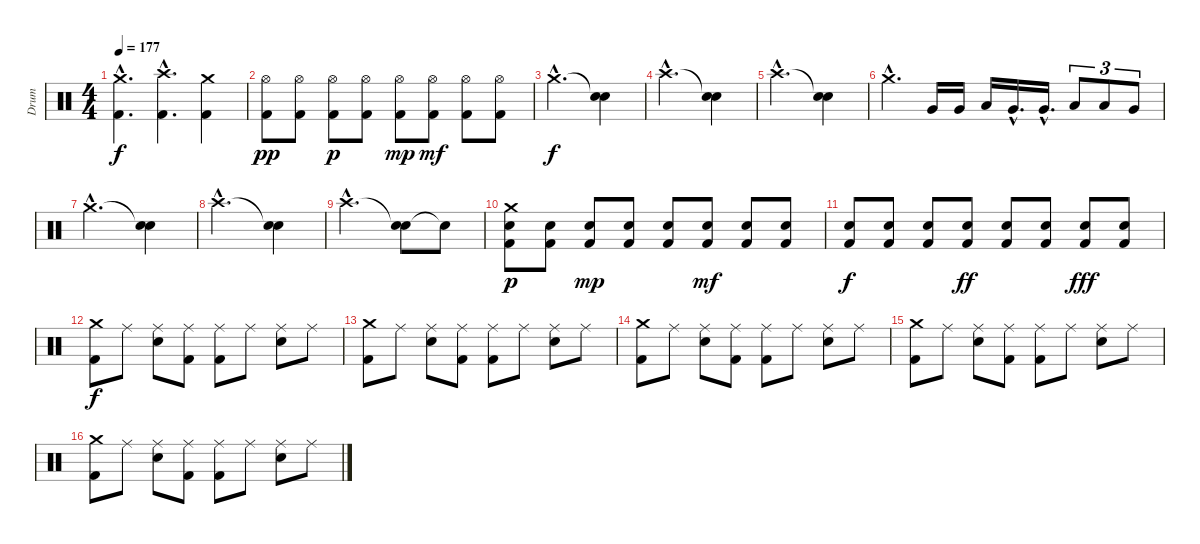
\track ("Drum" "Drum") {instrument percussion}
\staff {score}
\articulation defaults
\ts (4 4)
\tempo 177
\clef neutral
\ks c
("Crash medium (hit)"{hac} "Kick (hit) 2"{hac}).4{d dy f} ("Crash high (hit)"{hac} "Kick (hit) 2"{hac}).4{d} ("Crash medium (hit)" "Kick (hit) 2").4 |
("Hi-Hat (open)" "Kick (hit) 2").8{dy pp} ("Hi-Hat (open)" "Kick (hit) 2").8 ("Hi-Hat (open)" "Kick (hit) 2").8{dy p} ("Hi-Hat (open)" "Kick (hit) 2").8 ("Hi-Hat (open)" "Kick (hit) 2").8{dy mp} ("Hi-Hat (open)" "Kick (hit) 2").8{dy mf} ("Hi-Hat (open)" "Kick (hit) 2").8 ("Hi-Hat (open)" "Kick (hit) 2").8 |
"Crash medium (hit)"{hac}.2{d dy f} ("Snare (hit)"{t} "Electric Snare (hit)").4 |
"Crash high (hit)"{hac}.2{d} ("Snare (hit)"{t} "Electric Snare (hit)").4 |
"Crash high (hit)"{hac}.2{d} ("Snare (hit)"{t} "Electric Snare (hit)").4 |
"Crash medium (hit)"{hac}.4{d} "Very Low Tom (hit)".16 "Very Low Tom (hit)".16 "Low Tom (hit)".16 "Very Low Tom (hit)"{hac}.16{d} "Very Low Tom (hit)"{hac}.16{d} "Low Tom (hit)".8{tu (3 2)} "Low Tom (hit)".8{tu (3 2)} "Very Low Tom (hit)".8{tu (3 2)} |
"Crash medium (hit)"{hac}.2{d} ("Snare (hit)"{t} "Electric Snare (hit)").4 |
"Crash high (hit)"{hac}.2{d} ("Snare (hit)"{t} "Electric Snare (hit)").4 |
"Crash high (hit)"{hac}.2{d} ("Snare (hit)"{t} "Electric Snare (hit)").8 "Snare (hit)"{t}.8 |
("Crash medium (hit)" "Electric Snare (hit)" "Kick (hit) 2").8{dy p volume 16} ("Electric Snare (hit)" "Kick (hit) 2").8 ("Electric Snare (hit)" "Kick (hit) 2").8{dy mp} ("Electric Snare (hit)" "Kick (hit) 2").8 ("Electric Snare (hit)" "Kick (hit) 2").8 ("Electric Snare (hit)" "Kick (hit) 2").8{dy mf} ("Electric Snare (hit)" "Kick (hit) 2").8 ("Electric Snare (hit)" "Kick (hit) 2").8 |
("Electric Snare (hit)" "Kick (hit) 2").8{dy f} ("Electric Snare (hit)" "Kick (hit) 2").8 ("Electric Snare (hit)" "Kick (hit) 2").8 ("Electric Snare (hit)" "Kick (hit) 2").8{dy ff} ("Electric Snare (hit)" "Kick (hit) 2").8 ("Electric Snare (hit)" "Kick (hit) 2").8 ("Electric Snare (hit)" "Kick (hit) 2").8{dy fff} ("Electric Snare (hit)" "Kick (hit) 2").8 |
("Crash medium (hit)" "Kick (hit) 2").8{dy f volume 16} "Ride (middle)".8 ("Ride (middle)" "Electric Snare (hit)").8 ("Ride (middle)" "Kick (hit) 2").8 ("Ride (middle)" "Kick (hit) 2").8 "Ride (middle)".8 ("Ride (middle)" "Electric Snare (hit)").8 "Ride (middle)".8 |
("Crash medium (hit)" "Kick (hit) 2").8 "Ride (middle)".8 ("Ride (middle)" "Electric Snare (hit)").8 ("Ride (middle)" "Kick (hit) 2").8 ("Ride (middle)" "Kick (hit) 2").8 "Ride (middle)".8 ("Ride (middle)" "Electric Snare (hit)").8 "Ride (middle)".8 |
("Crash medium (hit)" "Kick (hit) 2").8 "Ride (middle)".8 ("Ride (middle)" "Electric Snare (hit)").8 ("Ride (middle)" "Kick (hit) 2").8 ("Ride (middle)" "Kick (hit) 2").8 "Ride (middle)".8 ("Ride (middle)" "Electric Snare (hit)").8 "Ride (middle)".8 |
("Crash medium (hit)" "Kick (hit) 2").8 "Ride (middle)".8 ("Ride (middle)" "Electric Snare (hit)").8 ("Ride (middle)" "Kick (hit) 2").8 ("Ride (middle)" "Kick (hit) 2").8 "Ride (middle)".8 ("Ride (middle)" "Electric Snare (hit)").8 "Ride (middle)".8 |
("Crash medium (hit)" "Kick (hit) 2").8 "Ride (middle)".8 ("Ride (middle)" "Electric Snare (hit)").8 ("Ride (middle)" "Kick (hit) 2").8 ("Ride (middle)" "Kick (hit) 2").8 "Ride (middle)".8 ("Ride (middle)" "Electric Snare (hit)").8 "Ride (middle)".8
